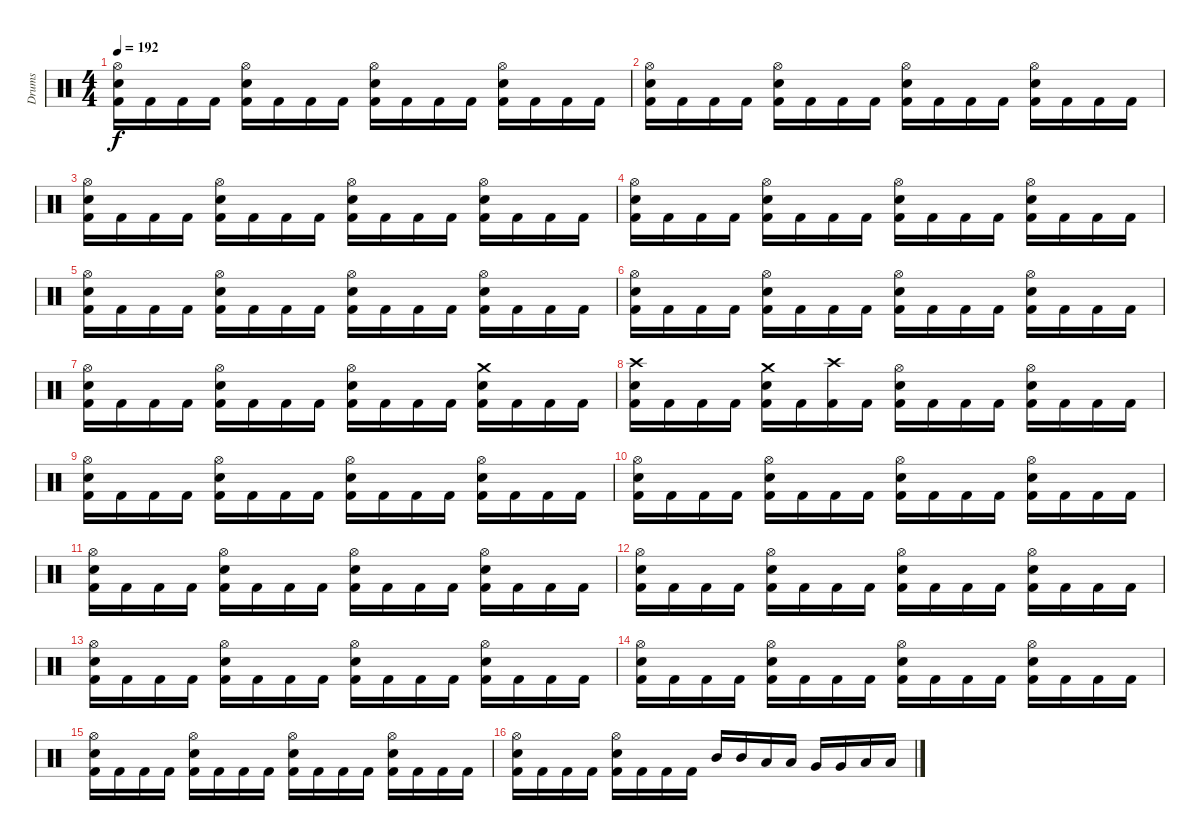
\track ("Drums" "Drums") {instrument percussion}
\staff {score}
\articulation defaults
\ts (4 4)
\tempo 192
\clef neutral
\ks c
("Hi-Hat (open)" "Snare (hit) 2" "Kick (hit) 2").16{dy f} "Kick (hit) 2".16 "Kick (hit) 2".16 "Kick (hit) 2".16 ("Hi-Hat (open)" "Snare (hit) 2" "Kick (hit) 2").16 "Kick (hit) 2".16 "Kick (hit) 2".16 "Kick (hit) 2".16 ("Hi-Hat (open)" "Snare (hit) 2" "Kick (hit) 2").16 "Kick (hit) 2".16 "Kick (hit) 2".16 "Kick (hit) 2".16 ("Hi-Hat (open)" "Snare (hit) 2" "Kick (hit) 2").16 "Kick (hit) 2".16 "Kick (hit) 2".16 "Kick (hit) 2".16 |
("Hi-Hat (open)" "Snare (hit) 2" "Kick (hit) 2").16 "Kick (hit) 2".16 "Kick (hit) 2".16 "Kick (hit) 2".16 ("Hi-Hat (open)" "Snare (hit) 2" "Kick (hit) 2").16 "Kick (hit) 2".16 "Kick (hit) 2".16 "Kick (hit) 2".16 ("Hi-Hat (open)" "Snare (hit) 2" "Kick (hit) 2").16 "Kick (hit) 2".16 "Kick (hit) 2".16 "Kick (hit) 2".16 ("Hi-Hat (open)" "Snare (hit) 2" "Kick (hit) 2").16 "Kick (hit) 2".16 "Kick (hit) 2".16 "Kick (hit) 2".16 |
("Hi-Hat (open)" "Snare (hit) 2" "Kick (hit) 2").16 "Kick (hit) 2".16 "Kick (hit) 2".16 "Kick (hit) 2".16 ("Hi-Hat (open)" "Snare (hit) 2" "Kick (hit) 2").16 "Kick (hit) 2".16 "Kick (hit) 2".16 "Kick (hit) 2".16 ("Hi-Hat (open)" "Snare (hit) 2" "Kick (hit) 2").16 "Kick (hit) 2".16 "Kick (hit) 2".16 "Kick (hit) 2".16 ("Hi-Hat (open)" "Snare (hit) 2" "Kick (hit) 2").16 "Kick (hit) 2".16 "Kick (hit) 2".16 "Kick (hit) 2".16 |
("Hi-Hat (open)" "Snare (hit) 2" "Kick (hit) 2").16 "Kick (hit) 2".16 "Kick (hit) 2".16 "Kick (hit) 2".16 ("Hi-Hat (open)" "Snare (hit) 2" "Kick (hit) 2").16 "Kick (hit) 2".16 "Kick (hit) 2".16 "Kick (hit) 2".16 ("Hi-Hat (open)" "Snare (hit) 2" "Kick (hit) 2").16 "Kick (hit) 2".16 "Kick (hit) 2".16 "Kick (hit) 2".16 ("Hi-Hat (open)" "Snare (hit) 2" "Kick (hit) 2").16 "Kick (hit) 2".16 "Kick (hit) 2".16 "Kick (hit) 2".16 |
("Hi-Hat (open)" "Snare (hit) 2" "Kick (hit) 2").16 "Kick (hit) 2".16 "Kick (hit) 2".16 "Kick (hit) 2".16 ("Hi-Hat (open)" "Snare (hit) 2" "Kick (hit) 2").16 "Kick (hit) 2".16 "Kick (hit) 2".16 "Kick (hit) 2".16 ("Hi-Hat (open)" "Snare (hit) 2" "Kick (hit) 2").16 "Kick (hit) 2".16 "Kick (hit) 2".16 "Kick (hit) 2".16 ("Hi-Hat (open)" "Snare (hit) 2" "Kick (hit) 2").16 "Kick (hit) 2".16 "Kick (hit) 2".16 "Kick (hit) 2".16 |
("Hi-Hat (open)" "Snare (hit) 2" "Kick (hit) 2").16 "Kick (hit) 2".16 "Kick (hit) 2".16 "Kick (hit) 2".16 ("Hi-Hat (open)" "Snare (hit) 2" "Kick (hit) 2").16 "Kick (hit) 2".16 "Kick (hit) 2".16 "Kick (hit) 2".16 ("Hi-Hat (open)" "Snare (hit) 2" "Kick (hit) 2").16 "Kick (hit) 2".16 "Kick (hit) 2".16 "Kick (hit) 2".16 ("Hi-Hat (open)" "Snare (hit) 2" "Kick (hit) 2").16 "Kick (hit) 2".16 "Kick (hit) 2".16 "Kick (hit) 2".16 |
("Hi-Hat (open)" "Snare (hit) 2" "Kick (hit) 2").16 "Kick (hit) 2".16 "Kick (hit) 2".16 "Kick (hit) 2".16 ("Hi-Hat (open)" "Snare (hit) 2" "Kick (hit) 2").16 "Kick (hit) 2".16 "Kick (hit) 2".16 "Kick (hit) 2".16 ("Hi-Hat (open)" "Snare (hit) 2" "Kick (hit) 2").16 "Kick (hit) 2".16 "Kick (hit) 2".16 "Kick (hit) 2".16 ("Crash medium (hit)" "Snare (hit) 2" "Kick (hit) 2").16 "Kick (hit) 2".16 "Kick (hit) 2".16 "Kick (hit) 2".16 |
("Crash high (hit)" "Snare (hit) 2" "Kick (hit) 2").16 "Kick (hit) 2".16 "Kick (hit) 2".16 "Kick (hit) 2".16 ("Crash medium (hit)" "Snare (hit) 2" "Kick (hit) 2").16 "Kick (hit) 2".16 ("Crash high (hit)" "Kick (hit) 2").16 "Kick (hit) 2".16 ("Hi-Hat (open)" "Snare (hit) 2" "Kick (hit) 2").16 "Kick (hit) 2".16 "Kick (hit) 2".16 "Kick (hit) 2".16 ("Hi-Hat (open)" "Snare (hit) 2" "Kick (hit) 2").16 "Kick (hit) 2".16 "Kick (hit) 2".16 "Kick (hit) 2".16 |
("Hi-Hat (open)" "Snare (hit) 2" "Kick (hit) 2").16 "Kick (hit) 2".16 "Kick (hit) 2".16 "Kick (hit) 2".16 ("Hi-Hat (open)" "Snare (hit) 2" "Kick (hit) 2").16 "Kick (hit) 2".16 "Kick (hit) 2".16 "Kick (hit) 2".16 ("Hi-Hat (open)" "Snare (hit) 2" "Kick (hit) 2").16 "Kick (hit) 2".16 "Kick (hit) 2".16 "Kick (hit) 2".16 ("Hi-Hat (open)" "Snare (hit) 2" "Kick (hit) 2").16 "Kick (hit) 2".16 "Kick (hit) 2".16 "Kick (hit) 2".16 |
("Hi-Hat (open)" "Snare (hit) 2" "Kick (hit) 2").16 "Kick (hit) 2".16 "Kick (hit) 2".16 "Kick (hit) 2".16 ("Hi-Hat (open)" "Snare (hit) 2" "Kick (hit) 2").16 "Kick (hit) 2".16 "Kick (hit) 2".16 "Kick (hit) 2".16 ("Hi-Hat (open)" "Snare (hit) 2" "Kick (hit) 2").16 "Kick (hit) 2".16 "Kick (hit) 2".16 "Kick (hit) 2".16 ("Hi-Hat (open)" "Snare (hit) 2" "Kick (hit) 2").16 "Kick (hit) 2".16 "Kick (hit) 2".16 "Kick (hit) 2".16 |
("Hi-Hat (open)" "Snare (hit) 2" "Kick (hit) 2").16 "Kick (hit) 2".16 "Kick (hit) 2".16 "Kick (hit) 2".16 ("Hi-Hat (open)" "Snare (hit) 2" "Kick (hit) 2").16 "Kick (hit) 2".16 "Kick (hit) 2".16 "Kick (hit) 2".16 ("Hi-Hat (open)" "Snare (hit) 2" "Kick (hit) 2").16 "Kick (hit) 2".16 "Kick (hit) 2".16 "Kick (hit) 2".16 ("Hi-Hat (open)" "Snare (hit) 2" "Kick (hit) 2").16 "Kick (hit) 2".16 "Kick (hit) 2".16 "Kick (hit) 2".16 |
("Hi-Hat (open)" "Snare (hit) 2" "Kick (hit) 2").16 "Kick (hit) 2".16 "Kick (hit) 2".16 "Kick (hit) 2".16 ("Hi-Hat (open)" "Snare (hit) 2" "Kick (hit) 2").16 "Kick (hit) 2".16 "Kick (hit) 2".16 "Kick (hit) 2".16 ("Hi-Hat (open)" "Snare (hit) 2" "Kick (hit) 2").16 "Kick (hit) 2".16 "Kick (hit) 2".16 "Kick (hit) 2".16 ("Hi-Hat (open)" "Snare (hit) 2" "Kick (hit) 2").16 "Kick (hit) 2".16 "Kick (hit) 2".16 "Kick (hit) 2".16 |
("Hi-Hat (open)" "Snare (hit) 2" "Kick (hit) 2").16 "Kick (hit) 2".16 "Kick (hit) 2".16 "Kick (hit) 2".16 ("Hi-Hat (open)" "Snare (hit) 2" "Kick (hit) 2").16 "Kick (hit) 2".16 "Kick (hit) 2".16 "Kick (hit) 2".16 ("Hi-Hat (open)" "Snare (hit) 2" "Kick (hit) 2").16 "Kick (hit) 2".16 "Kick (hit) 2".16 "Kick (hit) 2".16 ("Hi-Hat (open)" "Snare (hit) 2" "Kick (hit) 2").16 "Kick (hit) 2".16 "Kick (hit) 2".16 "Kick (hit) 2".16 |
("Hi-Hat (open)" "Snare (hit) 2" "Kick (hit) 2").16 "Kick (hit) 2".16 "Kick (hit) 2".16 "Kick (hit) 2".16 ("Hi-Hat (open)" "Snare (hit) 2" "Kick (hit) 2").16 "Kick (hit) 2".16 "Kick (hit) 2".16 "Kick (hit) 2".16 ("Hi-Hat (open)" "Snare (hit) 2" "Kick (hit) 2").16 "Kick (hit) 2".16 "Kick (hit) 2".16 "Kick (hit) 2".16 ("Hi-Hat (open)" "Snare (hit) 2" "Kick (hit) 2").16 "Kick (hit) 2".16 "Kick (hit) 2".16 "Kick (hit) 2".16 |
("Hi-Hat (open)" "Snare (hit) 2" "Kick (hit) 2").16 "Kick (hit) 2".16 "Kick (hit) 2".16 "Kick (hit) 2".16 ("Hi-Hat (open)" "Snare (hit) 2" "Kick (hit) 2").16 "Kick (hit) 2".16 "Kick (hit) 2".16 "Kick (hit) 2".16 ("Hi-Hat (open)" "Snare (hit) 2" "Kick (hit) 2").16 "Kick (hit) 2".16 "Kick (hit) 2".16 "Kick (hit) 2".16 ("Hi-Hat (open)" "Snare (hit) 2" "Kick (hit) 2").16 "Kick (hit) 2".16 "Kick (hit) 2".16 "Kick (hit) 2".16 |
("Hi-Hat (open)" "Snare (hit) 2" "Kick (hit) 2").16 "Kick (hit) 2".16 "Kick (hit) 2".16 "Kick (hit) 2".16 ("Hi-Hat (open)" "Snare (hit) 2" "Kick (hit) 2").16 "Kick (hit) 2".16 "Kick (hit) 2".16 "Kick (hit) 2".16 "Mid Tom (hit)".16 "Mid Tom (hit)".16 "Low Tom (hit)".16 "Low Tom (hit)".16 "Very Low Tom (hit)".16 "Very Low Tom (hit)".16 "Low Floor Tom (hit)".16 "Low Floor Tom (hit)".16
